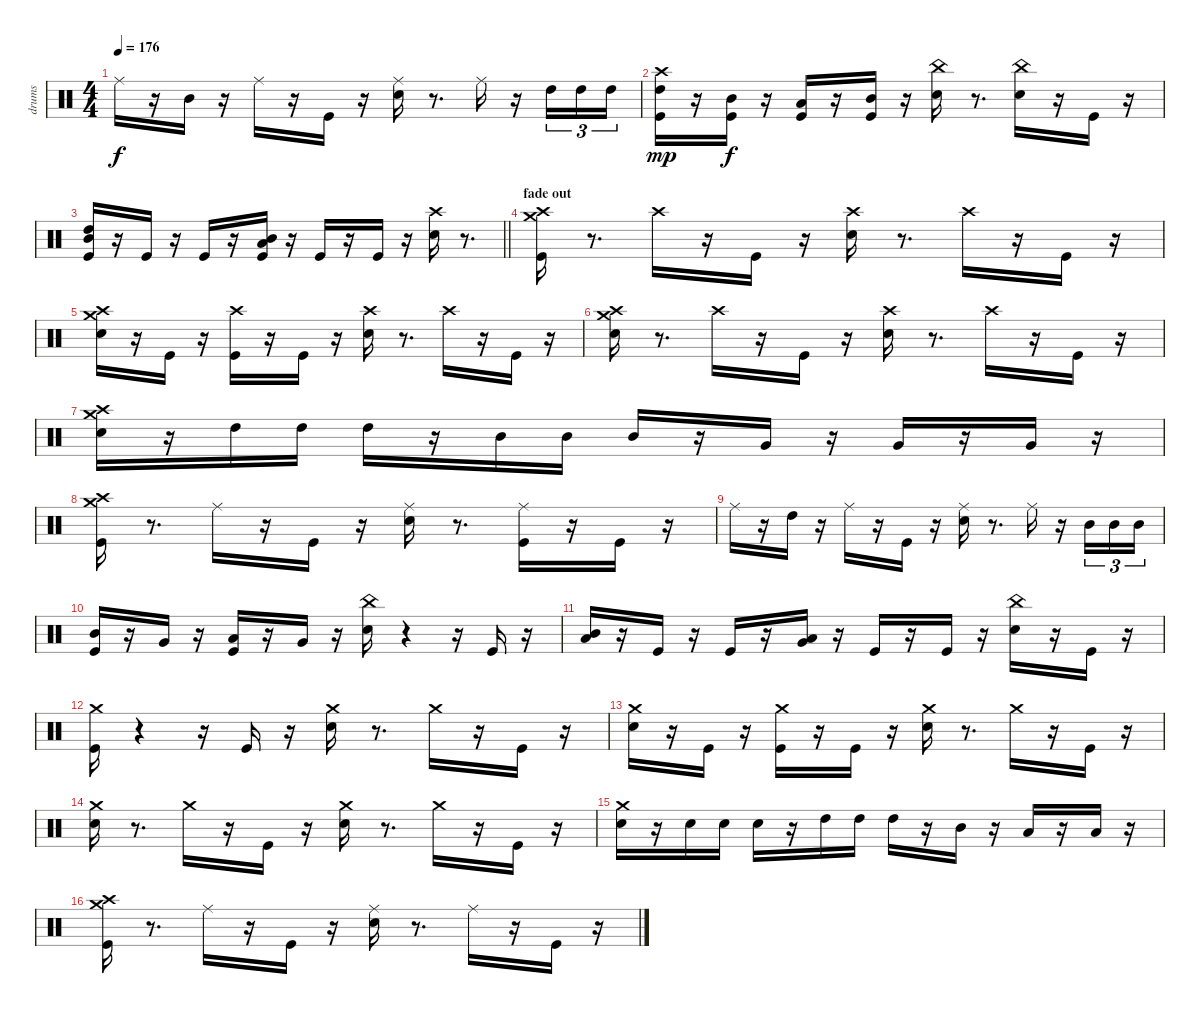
\track ("drums" "drums") {instrument percussion}
\staff {score}
\articulation defaults
\ts (4 4)
\tempo 176
\clef neutral
\ks c "Ride (middle)".16{dy f}
r.16 "Mid Tom (hit)".16 r.16 "Ride (middle)".16 r.16 "Kick (hit)".16 r.16 ("Snare (hit) 2" "Ride (middle)").16 r.8{d} "Ride (middle)".16 r.16 "High Tom (hit)".16{tu (3 2)} "High Tom (hit)".16{tu (3 2)} "High Tom (hit)".16{tu (3 2)} |
("Kick (hit)" "High Tom (hit)" "Crash high (hit)").16{dy mp} r.16 ("Kick (hit)" "Mid Tom (hit)").16{dy f} r.16 ("Kick (hit)" "Low Tom (hit)").16 r.16 ("Kick (hit)" "Mid Tom (hit)").16 r.16 ("Snare (hit) 2" "China (hit)").16 r.8{d} ("Snare (hit) 2" "China (hit)").16 r.16 "Kick (hit)".16 r.16 |
\barLineRight lightlight
("Kick (hit)" "Mid Tom (hit)" "High Tom (hit)").16 r.16 "Kick (hit)".16 r.16 "Kick (hit)".16 r.16 ("Kick (hit)" "Low Tom (hit)" "Mid Tom (hit)").16 r.16 "Kick (hit)".16 r.16 "Kick (hit)".16 r.16 ("Snare (hit) 2" "Crash high (hit)").16 r.8{d} |
\section ("" "fade out")
("Kick (hit)" "Crash high (hit)" "Crash medium (hit)").16{volume 10} r.8{d} "Crash high (hit)".16 r.16 "Kick (hit)".16 r.16 ("Snare (hit) 2" "Crash high (hit)").16 r.8{d} "Crash high (hit)".16 r.16 "Kick (hit)".16 r.16 |
("Snare (hit) 2" "Crash high (hit)" "Crash medium (hit)").16 r.16 "Kick (hit)".16 r.16 ("Kick (hit)" "Crash high (hit)").16 r.16 "Kick (hit)".16 r.16 ("Snare (hit) 2" "Crash high (hit)").16 r.8{d} "Crash high (hit)".16 r.16 "Kick (hit)".16 r.16 |
("Snare (hit) 2" "Crash high (hit)" "Crash medium (hit)").16 r.8{d} "Crash high (hit)".16 r.16 "Kick (hit)".16 r.16 ("Snare (hit) 2" "Crash high (hit)").16 r.8{d} "Crash high (hit)".16 r.16 "Kick (hit)".16 r.16 |
("Snare (hit) 2" "Crash high (hit)" "Crash medium (hit)").16 r.16 "High Tom (hit)".16 "High Tom (hit)".16 "High Tom (hit)".16 r.16 "Mid Tom (hit)".16 "Mid Tom (hit)".16 "Mid Tom (hit)".16 r.16 "Very Low Tom (hit)".16 r.16 "Very Low Tom (hit)".16 r.16 "Very Low Tom (hit)".16 r.16 |
("Kick (hit)" "Crash high (hit)" "Crash medium (hit)").16{volume 9} r.8{d} "Ride (middle)".16 r.16 "Kick (hit)".16 r.16 ("Snare (hit) 2" "Ride (middle)").16 r.8{d} ("Kick (hit)" "Ride (middle)").16 r.16 "Kick (hit)".16 r.16 |
"Ride (middle)".16 r.16 "High Tom (hit)".16 r.16 "Ride (middle)".16 r.16 "Kick (hit)".16 r.16 ("Snare (hit) 2" "Ride (middle)").16 r.8{d} "Ride (middle)".16 r.16 "Mid Tom (hit)".16{tu (3 2)} "Mid Tom (hit)".16{tu (3 2)} "Mid Tom (hit)".16{tu (3 2)} |
("Kick (hit)" "Mid Tom (hit)").16 r.16 "Very Low Tom (hit)".16 r.16 ("Kick (hit)" "Low Tom (hit)").16 r.16 "Very Low Tom (hit)".16 r.16 ("Snare (hit) 2" "China (hit)").16 r.4 r.16 "Kick (hit)".16 r.16 |
("Low Tom (hit)" "Mid Tom (hit)").16 r.16 "Kick (hit)".16 r.16 "Kick (hit)".16 r.16 ("Very Low Tom (hit)" "Low Tom (hit)").16 r.16 "Kick (hit)".16 r.16 "Kick (hit)".16 r.16 ("Snare (hit) 2" "China (hit)").16 r.16 "Kick (hit)".16 r.16 |
("Kick (hit)" "Crash medium (hit)").16{volume 6} r.4 r.16 "Kick (hit)".16 r.16 ("Snare (hit) 2" "Crash medium (hit)").16 r.8{d} "Crash medium (hit)".16 r.16 "Kick (hit)".16 r.16 |
("Snare (hit) 2" "Crash medium (hit)").16 r.16 "Kick (hit)".16 r.16 ("Kick (hit)" "Crash medium (hit)").16 r.16 "Kick (hit)".16 r.16 ("Snare (hit) 2" "Crash medium (hit)").16 r.8{d} "Crash medium (hit)".16 r.16 "Kick (hit)".16 r.16 |
("Snare (hit) 2" "Crash medium (hit)").16 r.8{d} "Crash medium (hit)".16 r.16 "Kick (hit)".16 r.16 ("Snare (hit) 2" "Crash medium (hit)").16 r.8{d} "Crash medium (hit)".16 r.16 "Kick (hit)".16 r.16 |
("Snare (hit) 2" "Crash medium (hit)").16 r.16 "Snare (hit) 2".16 "Snare (hit) 2".16 "Snare (hit) 2".16 r.16 "High Tom (hit)".16 "High Tom (hit)".16 "High Tom (hit)".16 r.16 "Mid Tom (hit)".16 r.16 "Low Tom (hit)".16 r.16 "Low Tom (hit)".16 r.16 |
("Kick (hit)" "Crash high (hit)" "Crash medium (hit)").16{volume 0} r.8{d} "Ride (middle)".16 r.16 "Kick (hit)".16 r.16 ("Snare (hit) 2" "Ride (middle)").16 r.8{d} "Ride (middle)".16 r.16 "Kick (hit)".16 r.16
